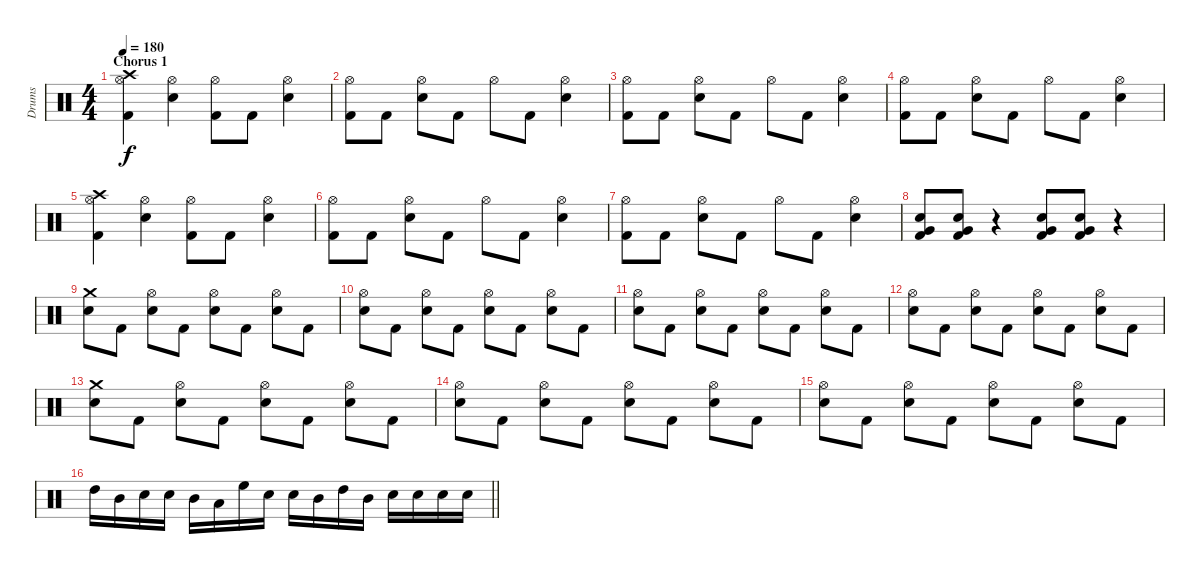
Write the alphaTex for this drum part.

\track ("Drums" "Drums") {instrument percussion}
\staff {score}
\articulation defaults
\ts (4 4)
\section ("" "Chorus 1")
\tempo 180
\clef neutral
\ks c
("Crash high (hit)" "Hi-Hat (open)" "Kick (hit) 2").4{dy f} ("Hi-Hat (open)" "Electric Snare (hit)").4 ("Hi-Hat (open)" "Kick (hit) 2").8 "Kick (hit) 2".8 ("Hi-Hat (open)" "Electric Snare (hit)").4 |
("Hi-Hat (open)" "Kick (hit) 2").8 "Kick (hit) 2".8 ("Hi-Hat (open)" "Electric Snare (hit)").8 "Kick (hit) 2".8 "Hi-Hat (open)".8 "Kick (hit) 2".8 ("Hi-Hat (open)" "Electric Snare (hit)").4 |
("Hi-Hat (open)" "Kick (hit) 2").8 "Kick (hit) 2".8 ("Hi-Hat (open)" "Electric Snare (hit)").8 "Kick (hit) 2".8 "Hi-Hat (open)".8 "Kick (hit) 2".8 ("Hi-Hat (open)" "Electric Snare (hit)").4 |
("Hi-Hat (open)" "Kick (hit) 2").8 "Kick (hit) 2".8 ("Hi-Hat (open)" "Electric Snare (hit)").8 "Kick (hit) 2".8 "Hi-Hat (open)".8 "Kick (hit) 2".8 ("Hi-Hat (open)" "Electric Snare (hit)").4 |
("Crash high (hit)" "Hi-Hat (open)" "Kick (hit) 2").4 ("Hi-Hat (open)" "Electric Snare (hit)").4 ("Hi-Hat (open)" "Kick (hit) 2").8 "Kick (hit) 2".8 ("Hi-Hat (open)" "Electric Snare (hit)").4 |
("Hi-Hat (open)" "Kick (hit) 2").8 "Kick (hit) 2".8 ("Hi-Hat (open)" "Electric Snare (hit)").8 "Kick (hit) 2".8 "Hi-Hat (open)".8 "Kick (hit) 2".8 ("Hi-Hat (open)" "Electric Snare (hit)").4 |
("Hi-Hat (open)" "Kick (hit) 2").8 "Kick (hit) 2".8 ("Hi-Hat (open)" "Electric Snare (hit)").8 "Kick (hit) 2".8 "Hi-Hat (open)".8 "Kick (hit) 2".8 ("Hi-Hat (open)" "Electric Snare (hit)").4 |
("Very Low Tom (hit)" "Electric Snare (hit)" "Kick (hit) 2").8 ("Very Low Tom (hit)" "Electric Snare (hit)" "Kick (hit) 2").8 r.4 ("Very Low Tom (hit)" "Electric Snare (hit)" "Kick (hit) 2").8 ("Very Low Tom (hit)" "Electric Snare (hit)" "Kick (hit) 2").8 r.4 |
("Crash medium (hit)" "Electric Snare (hit)").8 "Kick (hit) 2".8 ("Hi-Hat (open)" "Electric Snare (hit)").8 "Kick (hit) 2".8 ("Hi-Hat (open)" "Electric Snare (hit)").8 "Kick (hit) 2".8 ("Hi-Hat (open)" "Electric Snare (hit)").8 "Kick (hit) 2".8 |
("Hi-Hat (open)" "Electric Snare (hit)").8 "Kick (hit) 2".8 ("Hi-Hat (open)" "Electric Snare (hit)").8 "Kick (hit) 2".8 ("Hi-Hat (open)" "Electric Snare (hit)").8 "Kick (hit) 2".8 ("Hi-Hat (open)" "Electric Snare (hit)").8 "Kick (hit) 2".8 |
("Hi-Hat (open)" "Electric Snare (hit)").8 "Kick (hit) 2".8 ("Hi-Hat (open)" "Electric Snare (hit)").8 "Kick (hit) 2".8 ("Hi-Hat (open)" "Electric Snare (hit)").8 "Kick (hit) 2".8 ("Hi-Hat (open)" "Electric Snare (hit)").8 "Kick (hit) 2".8 |
("Hi-Hat (open)" "Electric Snare (hit)").8 "Kick (hit) 2".8 ("Hi-Hat (open)" "Electric Snare (hit)").8 "Kick (hit) 2".8 ("Hi-Hat (open)" "Electric Snare (hit)").8 "Kick (hit) 2".8 ("Hi-Hat (open)" "Electric Snare (hit)").8 "Kick (hit) 2".8 |
("Crash medium (hit)" "Electric Snare (hit)").8 "Kick (hit) 2".8 ("Hi-Hat (open)" "Electric Snare (hit)").8 "Kick (hit) 2".8 ("Hi-Hat (open)" "Electric Snare (hit)").8 "Kick (hit) 2".8 ("Hi-Hat (open)" "Electric Snare (hit)").8 "Kick (hit) 2".8 |
("Hi-Hat (open)" "Electric Snare (hit)").8 "Kick (hit) 2".8 ("Hi-Hat (open)" "Electric Snare (hit)").8 "Kick (hit) 2".8 ("Hi-Hat (open)" "Electric Snare (hit)").8 "Kick (hit) 2".8 ("Hi-Hat (open)" "Electric Snare (hit)").8 "Kick (hit) 2".8 |
("Hi-Hat (open)" "Electric Snare (hit)").8 "Kick (hit) 2".8 ("Hi-Hat (open)" "Electric Snare (hit)").8 "Kick (hit) 2".8 ("Hi-Hat (open)" "Electric Snare (hit)").8 "Kick (hit) 2".8 ("Hi-Hat (open)" "Electric Snare (hit)").8 "Kick (hit) 2".8 |
\barLineRight lightlight "High Tom (hit)".16 "Mid Tom (hit)".16 "Electric Snare (hit)".16 "Electric Snare (hit)".16 "Mid Tom (hit)".16 "Low Tom (hit)".16 "High Floor Tom (hit)".16 "Electric Snare (hit)".16 "Electric Snare (hit)".16 "Mid Tom (hit)".16 "High Tom (hit)".16 "Mid Tom (hit)".16 "Electric Snare (hit)".16 "Electric Snare (hit)".16 "Electric Snare (hit)".16 "Electric Snare (hit)".16
